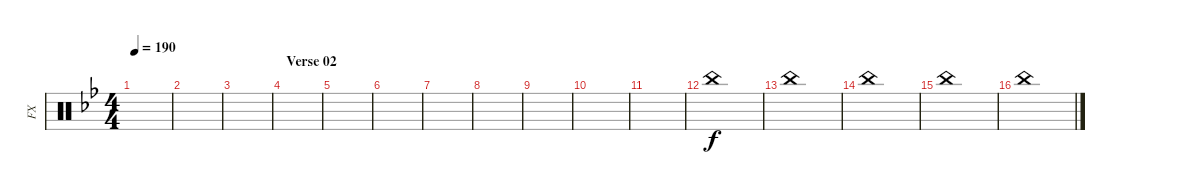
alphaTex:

\track ("FX" "FX") {instrument percussion}
\staff {score}
\articulation defaults
\ts (4 4)
\tempo 190
\clef neutral
\ks bb
|
|
|
\section ("" "Verse 02")
|
|
|
|
|
|
|
|
"China (hit)".1 |
"China (hit)".1 |
"China (hit)".1 |
"China (hit)".1 |
"China (hit)".1
